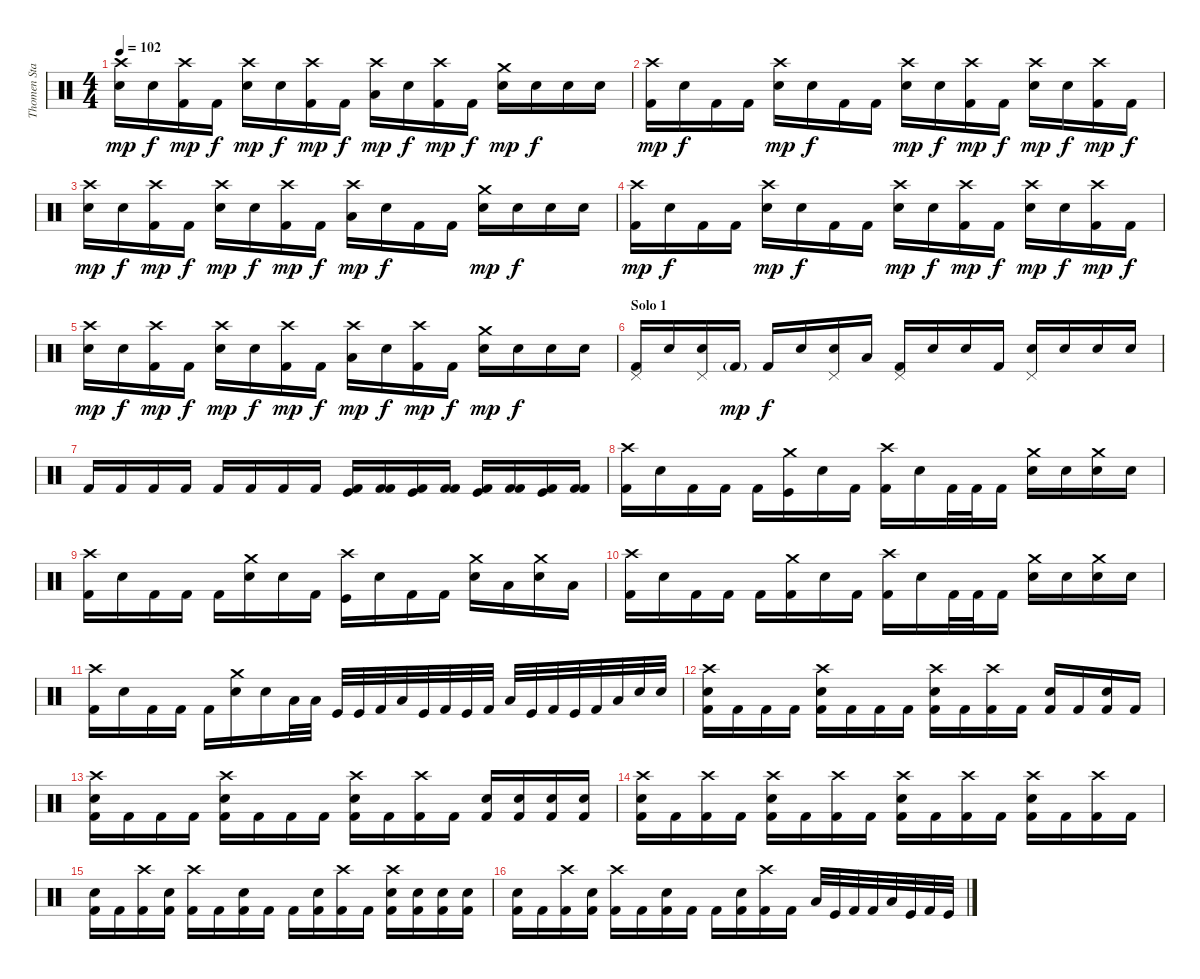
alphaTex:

\track ("Thomen Stauch" "Thomen Sta") {instrument percussion}
\staff {score}
\articulation defaults
\ts (4 4)
\tempo 102
\clef neutral
\ks c
("Crash high (hit)" "Snare (hit)"{x}).16{dy mp} "Snare (hit)"{x}.16{dy f} ("Crash high (hit)" "Kick (hit) 2").16{dy mp} "Kick (hit) 2".16{dy f} ("Crash high (hit)" "Snare (hit) 2").16{dy mp} "Snare (hit)"{x}.16{dy f} ("Crash high (hit)" "Kick (hit) 2").16{dy mp} "Kick (hit) 2".16{dy f} ("Crash high (hit)" "Low Floor Tom (hit)"{x}).16{dy mp} "Snare (hit)"{x}.16{dy f} ("Crash high (hit)" "Kick (hit) 2").16{dy mp} "Kick (hit) 2".16{dy f} ("Crash medium (hit)" "Snare (hit) 2").16{dy mp} "Snare (hit)"{x}.16{dy f} "Snare (hit) 2".16 "Snare (hit)"{x}.16 |
("Crash high (hit)" "Kick (hit) 2").16{dy mp} "Snare (hit)"{x}.16{dy f} "Kick (hit) 2".16 "Kick (hit) 2".16 ("Crash high (hit)" "Snare (hit) 2").16{dy mp} "Snare (hit)"{x}.16{dy f} "Kick (hit) 2".16 "Kick (hit) 2".16 ("Crash high (hit)" "Snare (hit)"{x}).16{dy mp} "Snare (hit)"{x}.16{dy f} ("Crash high (hit)" "Kick (hit) 2").16{dy mp} "Kick (hit) 2".16{dy f} ("Crash high (hit)" "Snare (hit) 2").16{dy mp} "Snare (hit)"{x}.16{dy f} ("Crash high (hit)" "Kick (hit) 2").16{dy mp} "Kick (hit) 2".16{dy f} |
("Crash high (hit)" "Snare (hit)"{x}).16{dy mp} "Snare (hit)"{x}.16{dy f} ("Crash high (hit)" "Kick (hit) 2").16{dy mp} "Kick (hit) 2".16{dy f} ("Crash high (hit)" "Snare (hit) 2").16{dy mp} "Snare (hit)"{x}.16{dy f} ("Crash high (hit)" "Kick (hit) 2").16{dy mp} "Kick (hit) 2".16{dy f} ("Crash high (hit)" "Low Floor Tom (hit)"{x}).16{dy mp} "Snare (hit)"{x}.16{dy f} "Kick (hit) 2".16 "Kick (hit) 2".16 ("Crash medium (hit)" "Snare (hit) 2").16{dy mp} "Snare (hit)"{x}.16{dy f} "Snare (hit) 2".16 "Snare (hit)"{x}.16 |
("Crash high (hit)" "Kick (hit) 2").16{dy mp} "Snare (hit)"{x}.16{dy f} "Kick (hit) 2".16 "Kick (hit) 2".16 ("Crash high (hit)" "Snare (hit) 2").16{dy mp} "Snare (hit)"{x}.16{dy f} "Kick (hit) 2".16 "Kick (hit) 2".16 ("Crash high (hit)" "Snare (hit)"{x}).16{dy mp} "Snare (hit)"{x}.16{dy f} ("Crash high (hit)" "Kick (hit) 2").16{dy mp} "Kick (hit) 2".16{dy f} ("Crash high (hit)" "Snare (hit) 2").16{dy mp} "Snare (hit)"{x}.16{dy f} ("Crash high (hit)" "Kick (hit) 2").16{dy mp} "Kick (hit) 2".16{dy f} |
("Crash high (hit)" "Snare (hit)"{x}).16{dy mp} "Snare (hit)"{x}.16{dy f} ("Crash high (hit)" "Kick (hit) 2").16{dy mp} "Kick (hit) 2".16{dy f} ("Crash high (hit)" "Snare (hit) 2").16{dy mp} "Snare (hit)"{x}.16{dy f} ("Crash high (hit)" "Kick (hit) 2").16{dy mp} "Kick (hit) 2".16{dy f} ("Crash high (hit)" "Low Floor Tom (hit)"{x}).16{dy mp} "Snare (hit)"{x}.16{dy f} ("Crash high (hit)" "Kick (hit) 2").16{dy mp} "Kick (hit) 2".16{dy f} ("Crash medium (hit)" "Snare (hit) 2").16{dy mp} "Snare (hit)"{x}.16{dy f} "Snare (hit) 2".16 "Snare (hit)"{x}.16 |
\section ("" "Solo 1")
("Pedal Hi-Hat (hit)" "Kick (hit) 2").16 "Snare (hit)"{x}.16 ("Pedal Hi-Hat (hit)" "Snare (hit)"{x}).16 "Kick (hit) 2"{g}.16{dy mp} "Kick (hit) 2".16{dy f} "Snare (hit) 2".16 ("Pedal Hi-Hat (hit)" "Snare (hit) 2").16 "Low Floor Tom (hit)"{x}.16 ("Pedal Hi-Hat (hit)" "Kick (hit) 2").16 "Snare (hit)"{x}.16 "Snare (hit)"{x}.16 "Kick (hit) 2".16 ("Pedal Hi-Hat (hit)" "Snare (hit) 2").16 "Snare (hit)"{x}.16 "Snare (hit)"{x}.16 "Snare (hit)"{x}.16 |
"Kick (hit) 2".16 "Kick (hit) 2".16 "Kick (hit) 2".16 "Kick (hit) 2".16 "Kick (hit) 2".16 "Kick (hit) 2".16 "Kick (hit) 2".16 "Kick (hit) 2".16 ("Kick (hit)" "Kick (hit) 2").16 ("Kick (hit) 2" "Kick (hit) 2").16 ("Kick (hit)" "Kick (hit) 2").16 ("Kick (hit) 2" "Kick (hit) 2").16 ("Kick (hit)" "Kick (hit) 2").16 ("Kick (hit) 2" "Kick (hit) 2").16 ("Kick (hit)" "Kick (hit) 2").16 ("Kick (hit) 2" "Kick (hit) 2").16 |
("Crash high (hit)" "Kick (hit) 2").16 "Snare (hit)"{x}.16 "Kick (hit) 2".16 "Kick (hit) 2".16 "Kick (hit) 2".16 ("Crash medium (hit)" "Kick (hit)").16 "Snare (hit)"{x}.16 "Kick (hit) 2".16 ("Crash high (hit)" "Kick (hit) 2").16 "Snare (hit)"{x}.16 "Kick (hit) 2".32 "Kick (hit) 2".32 "Kick (hit) 2".16 ("Crash medium (hit)" "Snare (hit) 2").16 "Snare (hit)"{x}.16 ("Crash medium (hit)" "Snare (hit) 2").16 "Snare (hit)"{x}.16 |
("Crash high (hit)" "Kick (hit) 2").16 "Snare (hit)"{x}.16 "Kick (hit) 2".16 "Kick (hit) 2".16 "Kick (hit) 2".16 ("Crash medium (hit)" "Snare (hit) 2").16 "Snare (hit)"{x}.16 "Kick (hit) 2".16 ("Crash high (hit)" "Kick (hit)").16 "Snare (hit)"{x}.16 "Kick (hit) 2".16 "Kick (hit) 2".16 ("Crash medium (hit)" "Snare (hit) 2").16 "Low Floor Tom (hit)"{x}.16 ("Crash medium (hit)" "Snare (hit) 2").16 "Low Floor Tom (hit)"{x}.16 |
("Crash high (hit)" "Kick (hit) 2").16 "Snare (hit)"{x}.16 "Kick (hit) 2".16 "Kick (hit) 2".16 "Kick (hit) 2".16 ("Crash medium (hit)" "Kick (hit) 2").16 "Snare (hit)"{x}.16 "Kick (hit) 2".16 ("Crash high (hit)" "Kick (hit) 2").16 "Snare (hit)"{x}.16 "Kick (hit) 2".32 "Kick (hit) 2".32 "Kick (hit) 2".16 ("Crash medium (hit)" "Snare (hit) 2").16 "Snare (hit)"{x}.16 ("Crash medium (hit)" "Snare (hit) 2").16 "Snare (hit)"{x}.16 |
("Crash high (hit)" "Kick (hit) 2").16 "Snare (hit)"{x}.16 "Kick (hit) 2".16 "Kick (hit) 2".16 "Kick (hit) 2".16 ("Crash medium (hit)" "Snare (hit) 2").16 "Snare (hit)"{x}.16 "Low Floor Tom (hit)"{x}.32 "Low Floor Tom (hit)".32 "Kick (hit)".32 "Kick (hit)".32 "Kick (hit) 2".32 "Low Floor Tom (hit)".32 "Kick (hit)".32 "Kick (hit) 2".32 "Kick (hit)".32 "Kick (hit) 2".32 "Low Floor Tom (hit)".32 "Kick (hit)".32 "Kick (hit) 2".32 "Kick (hit)".32 "Kick (hit) 2".32 "Low Floor Tom (hit)".32 "Snare (hit) 2".32 "Snare (hit) 2".32 |
("Crash high (hit)" "Snare (hit) 2" "Kick (hit) 2").16 "Kick (hit) 2".16 "Kick (hit) 2".16 "Kick (hit) 2".16 ("Crash high (hit)" "Snare (hit) 2" "Kick (hit) 2").16 "Kick (hit) 2".16 "Kick (hit) 2".16 "Kick (hit) 2".16 ("Crash high (hit)" "Snare (hit) 2" "Kick (hit) 2").16 "Kick (hit) 2".16 ("Crash high (hit)" "Kick (hit) 2").16 "Kick (hit) 2".16 ("Snare (hit) 2" "Kick (hit) 2").16 "Kick (hit) 2".16 ("Snare (hit) 2" "Kick (hit) 2").16 "Kick (hit) 2".16 |
("Crash high (hit)" "Snare (hit) 2" "Kick (hit) 2").16 "Kick (hit) 2".16 "Kick (hit) 2".16 "Kick (hit) 2".16 ("Crash high (hit)" "Snare (hit) 2" "Kick (hit) 2").16 "Kick (hit) 2".16 "Kick (hit) 2".16 "Kick (hit) 2".16 ("Crash high (hit)" "Snare (hit) 2" "Kick (hit) 2").16 "Kick (hit) 2".16 ("Crash high (hit)" "Kick (hit) 2").16 "Kick (hit) 2".16 ("Snare (hit) 2" "Kick (hit) 2").16 ("Snare (hit) 2" "Kick (hit) 2").16 ("Snare (hit) 2" "Kick (hit) 2").16 ("Snare (hit) 2" "Kick (hit) 2").16 |
("Crash high (hit)" "Snare (hit) 2" "Kick (hit) 2").16 "Kick (hit) 2".16 ("Crash high (hit)" "Kick (hit) 2").16 "Kick (hit) 2".16 ("Crash high (hit)" "Snare (hit) 2" "Kick (hit) 2").16 "Kick (hit) 2".16 ("Crash high (hit)" "Kick (hit) 2").16 "Kick (hit) 2".16 ("Crash high (hit)" "Snare (hit) 2" "Kick (hit) 2").16 "Kick (hit) 2".16 ("Crash high (hit)" "Kick (hit) 2").16 "Kick (hit) 2".16 ("Crash high (hit)" "Snare (hit) 2" "Kick (hit) 2").16 "Kick (hit) 2".16 ("Crash high (hit)" "Kick (hit) 2").16 "Kick (hit) 2".16 |
("Snare (hit) 2" "Kick (hit) 2").16 "Kick (hit) 2".16 ("Crash high (hit)" "Kick (hit) 2").16 ("Snare (hit) 2" "Kick (hit) 2").16 ("Crash high (hit)" "Kick (hit) 2").16 "Kick (hit) 2".16 ("Snare (hit) 2" "Kick (hit) 2").16 "Kick (hit) 2".16 "Kick (hit) 2".16 ("Snare (hit) 2" "Kick (hit) 2").16 ("Crash high (hit)" "Kick (hit) 2").16 "Kick (hit) 2".16 ("Crash high (hit)" "Snare (hit) 2" "Kick (hit) 2").16 ("Snare (hit) 2" "Kick (hit) 2").16 ("Snare (hit) 2" "Kick (hit) 2").16 ("Snare (hit) 2" "Kick (hit) 2").16 |
("Snare (hit) 2" "Kick (hit) 2").16 "Kick (hit) 2".16 ("Crash high (hit)" "Kick (hit) 2").16 ("Snare (hit) 2" "Kick (hit) 2").16 ("Crash high (hit)" "Kick (hit) 2").16 "Kick (hit) 2".16 ("Snare (hit) 2" "Kick (hit) 2").16 "Kick (hit) 2".16 "Kick (hit) 2".16 ("Snare (hit) 2" "Kick (hit) 2").16 ("Crash high (hit)" "Kick (hit) 2").16 "Kick (hit) 2".16 "Low Floor Tom (hit)".32 "Kick (hit)".32 "Kick (hit) 2".32 "Kick (hit) 2".32 "Low Floor Tom (hit)".32 "Kick (hit)".32 "Kick (hit) 2".32 "Kick (hit)".32
